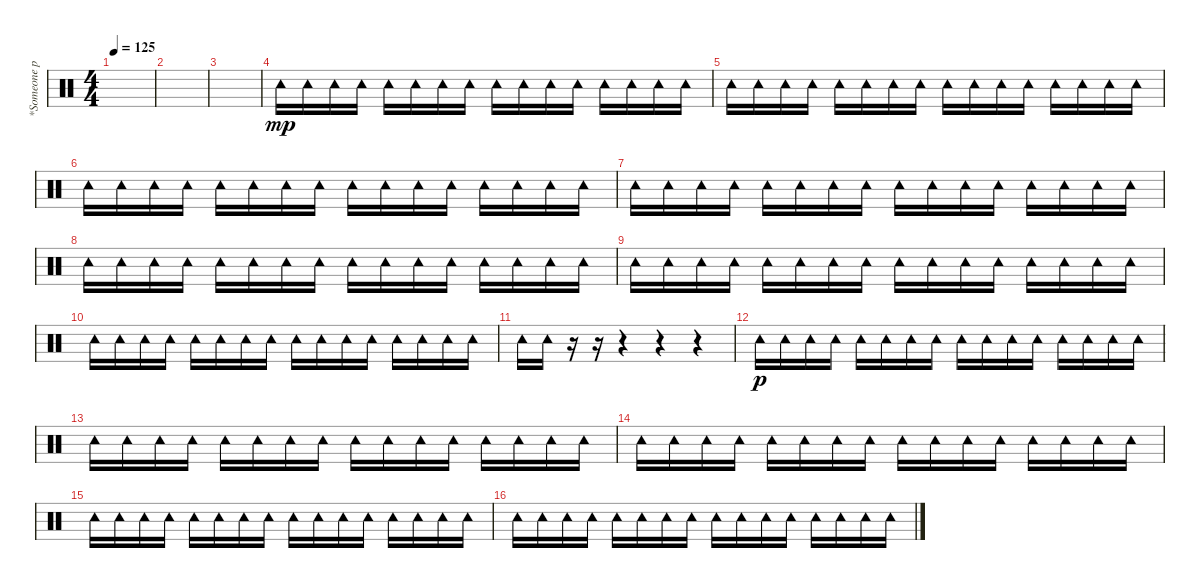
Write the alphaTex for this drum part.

\track ("*Someone play the tambourine" "*Someone p") {instrument percussion}
\staff {score}
\articulation defaults
\ts (4 4)
\tempo 125
\clef neutral
\ks c
|
|
|
"Tambourine (hit)".16{dy mp} "Tambourine (hit)".16 "Tambourine (hit)".16 "Tambourine (hit)".16 "Tambourine (hit)".16 "Tambourine (hit)".16 "Tambourine (hit)".16 "Tambourine (hit)".16 "Tambourine (hit)".16 "Tambourine (hit)".16 "Tambourine (hit)".16 "Tambourine (hit)".16 "Tambourine (hit)".16 "Tambourine (hit)".16 "Tambourine (hit)".16 "Tambourine (hit)".16 |
"Tambourine (hit)".16 "Tambourine (hit)".16 "Tambourine (hit)".16 "Tambourine (hit)".16 "Tambourine (hit)".16 "Tambourine (hit)".16 "Tambourine (hit)".16 "Tambourine (hit)".16 "Tambourine (hit)".16 "Tambourine (hit)".16 "Tambourine (hit)".16 "Tambourine (hit)".16 "Tambourine (hit)".16 "Tambourine (hit)".16 "Tambourine (hit)".16 "Tambourine (hit)".16 |
"Tambourine (hit)".16 "Tambourine (hit)".16 "Tambourine (hit)".16 "Tambourine (hit)".16 "Tambourine (hit)".16 "Tambourine (hit)".16 "Tambourine (hit)".16 "Tambourine (hit)".16 "Tambourine (hit)".16 "Tambourine (hit)".16 "Tambourine (hit)".16 "Tambourine (hit)".16 "Tambourine (hit)".16 "Tambourine (hit)".16 "Tambourine (hit)".16 "Tambourine (hit)".16 |
"Tambourine (hit)".16 "Tambourine (hit)".16 "Tambourine (hit)".16 "Tambourine (hit)".16 "Tambourine (hit)".16 "Tambourine (hit)".16 "Tambourine (hit)".16 "Tambourine (hit)".16 "Tambourine (hit)".16 "Tambourine (hit)".16 "Tambourine (hit)".16 "Tambourine (hit)".16 "Tambourine (hit)".16 "Tambourine (hit)".16 "Tambourine (hit)".16 "Tambourine (hit)".16 |
"Tambourine (hit)".16 "Tambourine (hit)".16 "Tambourine (hit)".16 "Tambourine (hit)".16 "Tambourine (hit)".16 "Tambourine (hit)".16 "Tambourine (hit)".16 "Tambourine (hit)".16 "Tambourine (hit)".16 "Tambourine (hit)".16 "Tambourine (hit)".16 "Tambourine (hit)".16 "Tambourine (hit)".16 "Tambourine (hit)".16 "Tambourine (hit)".16 "Tambourine (hit)".16 |
"Tambourine (hit)".16 "Tambourine (hit)".16 "Tambourine (hit)".16 "Tambourine (hit)".16 "Tambourine (hit)".16 "Tambourine (hit)".16 "Tambourine (hit)".16 "Tambourine (hit)".16 "Tambourine (hit)".16 "Tambourine (hit)".16 "Tambourine (hit)".16 "Tambourine (hit)".16 "Tambourine (hit)".16 "Tambourine (hit)".16 "Tambourine (hit)".16 "Tambourine (hit)".16 |
"Tambourine (hit)".16 "Tambourine (hit)".16 "Tambourine (hit)".16 "Tambourine (hit)".16 "Tambourine (hit)".16 "Tambourine (hit)".16 "Tambourine (hit)".16 "Tambourine (hit)".16 "Tambourine (hit)".16 "Tambourine (hit)".16 "Tambourine (hit)".16 "Tambourine (hit)".16 "Tambourine (hit)".16 "Tambourine (hit)".16 "Tambourine (hit)".16 "Tambourine (hit)".16 |
"Tambourine (hit)".16 "Tambourine (hit)".16 r.16 r.16 r.4 r.4 r.4 |
"Tambourine (hit)".16{dy p} "Tambourine (hit)".16 "Tambourine (hit)".16 "Tambourine (hit)".16 "Tambourine (hit)".16 "Tambourine (hit)".16 "Tambourine (hit)".16 "Tambourine (hit)".16 "Tambourine (hit)".16 "Tambourine (hit)".16 "Tambourine (hit)".16 "Tambourine (hit)".16 "Tambourine (hit)".16 "Tambourine (hit)".16 "Tambourine (hit)".16 "Tambourine (hit)".16 |
"Tambourine (hit)".16 "Tambourine (hit)".16 "Tambourine (hit)".16 "Tambourine (hit)".16 "Tambourine (hit)".16 "Tambourine (hit)".16 "Tambourine (hit)".16 "Tambourine (hit)".16 "Tambourine (hit)".16 "Tambourine (hit)".16 "Tambourine (hit)".16 "Tambourine (hit)".16 "Tambourine (hit)".16 "Tambourine (hit)".16 "Tambourine (hit)".16 "Tambourine (hit)".16 |
"Tambourine (hit)".16 "Tambourine (hit)".16 "Tambourine (hit)".16 "Tambourine (hit)".16 "Tambourine (hit)".16 "Tambourine (hit)".16 "Tambourine (hit)".16 "Tambourine (hit)".16 "Tambourine (hit)".16 "Tambourine (hit)".16 "Tambourine (hit)".16 "Tambourine (hit)".16 "Tambourine (hit)".16 "Tambourine (hit)".16 "Tambourine (hit)".16 "Tambourine (hit)".16 |
"Tambourine (hit)".16 "Tambourine (hit)".16 "Tambourine (hit)".16 "Tambourine (hit)".16 "Tambourine (hit)".16 "Tambourine (hit)".16 "Tambourine (hit)".16 "Tambourine (hit)".16 "Tambourine (hit)".16 "Tambourine (hit)".16 "Tambourine (hit)".16 "Tambourine (hit)".16 "Tambourine (hit)".16 "Tambourine (hit)".16 "Tambourine (hit)".16 "Tambourine (hit)".16 |
"Tambourine (hit)".16 "Tambourine (hit)".16 "Tambourine (hit)".16 "Tambourine (hit)".16 "Tambourine (hit)".16 "Tambourine (hit)".16 "Tambourine (hit)".16 "Tambourine (hit)".16 "Tambourine (hit)".16 "Tambourine (hit)".16 "Tambourine (hit)".16 "Tambourine (hit)".16 "Tambourine (hit)".16 "Tambourine (hit)".16 "Tambourine (hit)".16 "Tambourine (hit)".16
